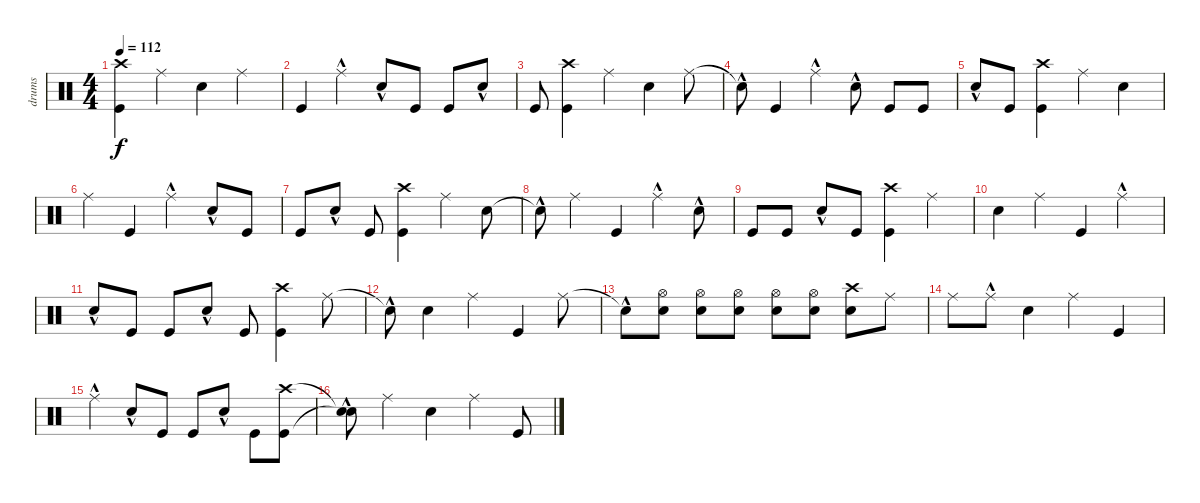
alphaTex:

\track ("drums" "drums") {instrument percussion}
\staff {score}
\articulation defaults
\ts (4 4)
\tempo 112
\clef neutral
\ks c
("Kick (hit)" "Crash high (hit)").4{dy f} "Ride (middle)".4 "Snare (hit) 2".4 "Ride (middle)".4 |
"Kick (hit)".4 "Ride (middle)"{hac}.4 "Snare (hit) 2"{hac}.8 "Kick (hit)".8 "Kick (hit)".8 "Snare (hit) 2"{hac}.8 |
"Kick (hit)".8 ("Kick (hit)" "Crash high (hit)").4 "Ride (middle)".4 "Snare (hit) 2".4 "Ride (middle)".8 |
"Snare (hit)"{hac t}.8 "Kick (hit)".4 "Ride (middle)"{hac}.4 "Snare (hit) 2"{hac}.8 "Kick (hit)".8 "Kick (hit)".8 |
"Snare (hit) 2"{hac}.8 "Kick (hit)".8 ("Kick (hit)" "Crash high (hit)").4 "Ride (middle)".4 "Snare (hit) 2".4 |
"Ride (middle)".4 "Kick (hit)".4 "Ride (middle)"{hac}.4 "Snare (hit) 2"{hac}.8 "Kick (hit)".8 |
"Kick (hit)".8 "Snare (hit) 2"{hac}.8 "Kick (hit)".8 ("Kick (hit)" "Crash high (hit)").4 "Ride (middle)".4 "Snare (hit) 2".8 |
"Snare (hit)"{hac t}.8 "Ride (middle)".4 "Kick (hit)".4 "Ride (middle)"{hac}.4 "Snare (hit) 2"{hac}.8 |
"Kick (hit)".8 "Kick (hit)".8 "Snare (hit) 2"{hac}.8 "Kick (hit)".8 ("Kick (hit)" "Crash high (hit)").4 "Ride (middle)".4 |
"Snare (hit) 2".4 "Ride (middle)".4 "Kick (hit)".4 "Ride (middle)"{hac}.4 |
"Snare (hit) 2"{hac}.8 "Kick (hit)".8 "Kick (hit)".8 "Snare (hit) 2"{hac}.8 "Kick (hit)".8 ("Kick (hit)" "Crash high (hit)").4 "Ride (middle)".8 |
"Snare (hit)"{hac t}.8 "Snare (hit) 2".4 "Ride (middle)".4 "Kick (hit)".4 "Ride (middle)".8 |
"Snare (hit)"{hac t}.8 ("Snare (hit) 2" "Hi-Hat (open)").8 ("Snare (hit) 2" "Hi-Hat (open)").8 ("Snare (hit) 2" "Hi-Hat (open)").8 ("Snare (hit) 2" "Hi-Hat (open)").8 ("Snare (hit) 2" "Hi-Hat (open)").8 ("Snare (hit) 2" "Crash high (hit)").8 "Ride (middle)".8 |
"Ride (middle)".8 "Ride (middle)"{hac}.8 "Snare (hit) 2".4 "Ride (middle)".4 "Kick (hit)".4 |
"Ride (middle)"{hac}.4 "Snare (hit) 2"{hac}.8 "Kick (hit)".8 "Kick (hit)".8 "Snare (hit) 2"{hac}.8 "Kick (hit)".8 ("Kick (hit)" "Crash high (hit)").8 |
("Snare (hit)"{hac t} "Snare (hit)"{t}).8 "Ride (middle)".4 "Snare (hit) 2".4 "Ride (middle)".4 "Kick (hit)".8
